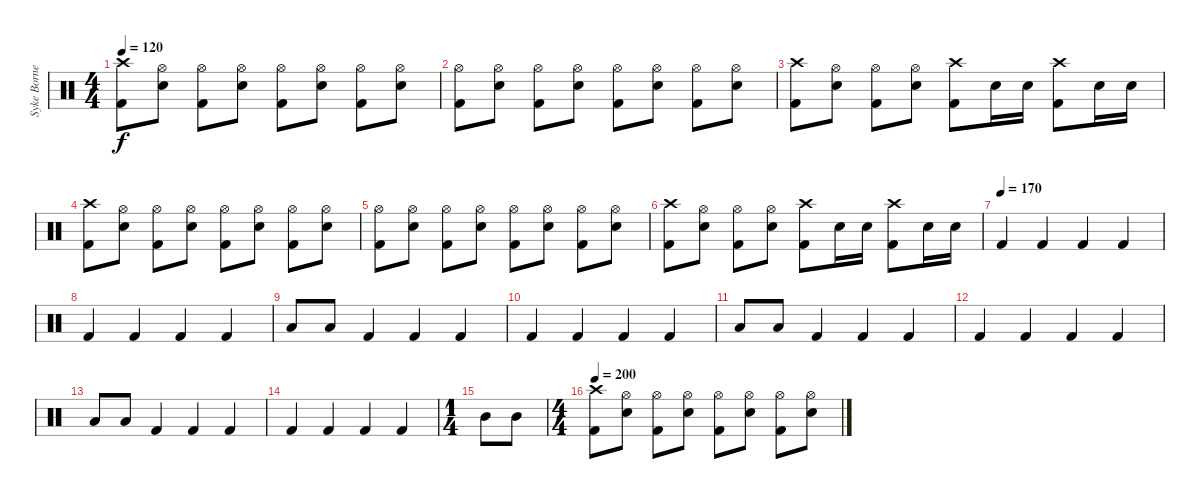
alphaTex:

\track ("Syke Bornetto (Drums)" "Syke Borne") {instrument percussion}
\staff {score}
\articulation defaults
\ts (4 4)
\tempo 120
\clef neutral
\ks c
("Crash high (hit)" "Kick (hit) 2").8{dy f} ("Hi-Hat (open)" "Electric Snare (hit)").8 ("Hi-Hat (open)" "Kick (hit) 2").8 ("Hi-Hat (open)" "Electric Snare (hit)").8 ("Hi-Hat (open)" "Kick (hit) 2").8 ("Hi-Hat (open)" "Electric Snare (hit)").8 ("Hi-Hat (open)" "Kick (hit) 2").8 ("Hi-Hat (open)" "Electric Snare (hit)").8 |
("Hi-Hat (open)" "Kick (hit) 2").8 ("Hi-Hat (open)" "Electric Snare (hit)").8 ("Hi-Hat (open)" "Kick (hit) 2").8 ("Hi-Hat (open)" "Electric Snare (hit)").8 ("Hi-Hat (open)" "Kick (hit) 2").8 ("Hi-Hat (open)" "Electric Snare (hit)").8 ("Hi-Hat (open)" "Kick (hit) 2").8 ("Hi-Hat (open)" "Electric Snare (hit)").8 |
("Crash high (hit)" "Kick (hit) 2").8 ("Hi-Hat (open)" "Electric Snare (hit)").8 ("Hi-Hat (open)" "Kick (hit) 2").8 ("Hi-Hat (open)" "Electric Snare (hit)").8 ("Crash high (hit)" "Kick (hit) 2").8 "Electric Snare (hit)".16 "Electric Snare (hit)".16 ("Crash high (hit)" "Kick (hit) 2").8 "Electric Snare (hit)".16 "Electric Snare (hit)".16 |
("Crash high (hit)" "Kick (hit) 2").8 ("Hi-Hat (open)" "Electric Snare (hit)").8 ("Hi-Hat (open)" "Kick (hit) 2").8 ("Hi-Hat (open)" "Electric Snare (hit)").8 ("Hi-Hat (open)" "Kick (hit) 2").8 ("Hi-Hat (open)" "Electric Snare (hit)").8 ("Hi-Hat (open)" "Kick (hit) 2").8 ("Hi-Hat (open)" "Electric Snare (hit)").8 |
("Hi-Hat (open)" "Kick (hit) 2").8 ("Hi-Hat (open)" "Electric Snare (hit)").8 ("Hi-Hat (open)" "Kick (hit) 2").8 ("Hi-Hat (open)" "Electric Snare (hit)").8 ("Hi-Hat (open)" "Kick (hit) 2").8 ("Hi-Hat (open)" "Electric Snare (hit)").8 ("Hi-Hat (open)" "Kick (hit) 2").8 ("Hi-Hat (open)" "Electric Snare (hit)").8 |
("Crash high (hit)" "Kick (hit) 2").8 ("Hi-Hat (open)" "Electric Snare (hit)").8 ("Hi-Hat (open)" "Kick (hit) 2").8 ("Hi-Hat (open)" "Electric Snare (hit)").8 ("Crash high (hit)" "Kick (hit) 2").8 "Electric Snare (hit)".16 "Electric Snare (hit)".16 ("Crash high (hit)" "Kick (hit) 2").8 "Electric Snare (hit)".16 "Electric Snare (hit)".16 |
\tempo (170)
"Kick (hit) 2".4 "Kick (hit) 2".4 "Kick (hit) 2".4 "Kick (hit) 2".4 |
"Kick (hit) 2".4 "Kick (hit) 2".4 "Kick (hit) 2".4 "Kick (hit) 2".4 |
"Low Tom (hit)".8 "Low Tom (hit)".8 "Kick (hit) 2".4 "Kick (hit) 2".4 "Kick (hit) 2".4 |
"Kick (hit) 2".4 "Kick (hit) 2".4 "Kick (hit) 2".4 "Kick (hit) 2".4 |
"Low Tom (hit)".8 "Low Tom (hit)".8 "Kick (hit) 2".4 "Kick (hit) 2".4 "Kick (hit) 2".4 |
"Kick (hit) 2".4 "Kick (hit) 2".4 "Kick (hit) 2".4 "Kick (hit) 2".4 |
"Low Tom (hit)".8 "Low Tom (hit)".8 "Kick (hit) 2".4 "Kick (hit) 2".4 "Kick (hit) 2".4 |
"Kick (hit) 2".4 "Kick (hit) 2".4 "Kick (hit) 2".4 "Kick (hit) 2".4 |
\ts (1 4)
"Mid Tom (hit)".8 "Mid Tom (hit)".8 |
\ts (4 4)
\tempo 200
("Crash high (hit)" "Kick (hit) 2").8 ("Hi-Hat (open)" "Electric Snare (hit)").8 ("Hi-Hat (open)" "Kick (hit) 2").8 ("Hi-Hat (open)" "Electric Snare (hit)").8 ("Hi-Hat (open)" "Kick (hit) 2").8 ("Hi-Hat (open)" "Electric Snare (hit)").8 ("Hi-Hat (open)" "Kick (hit) 2").8 ("Hi-Hat (open)" "Electric Snare (hit)").8
